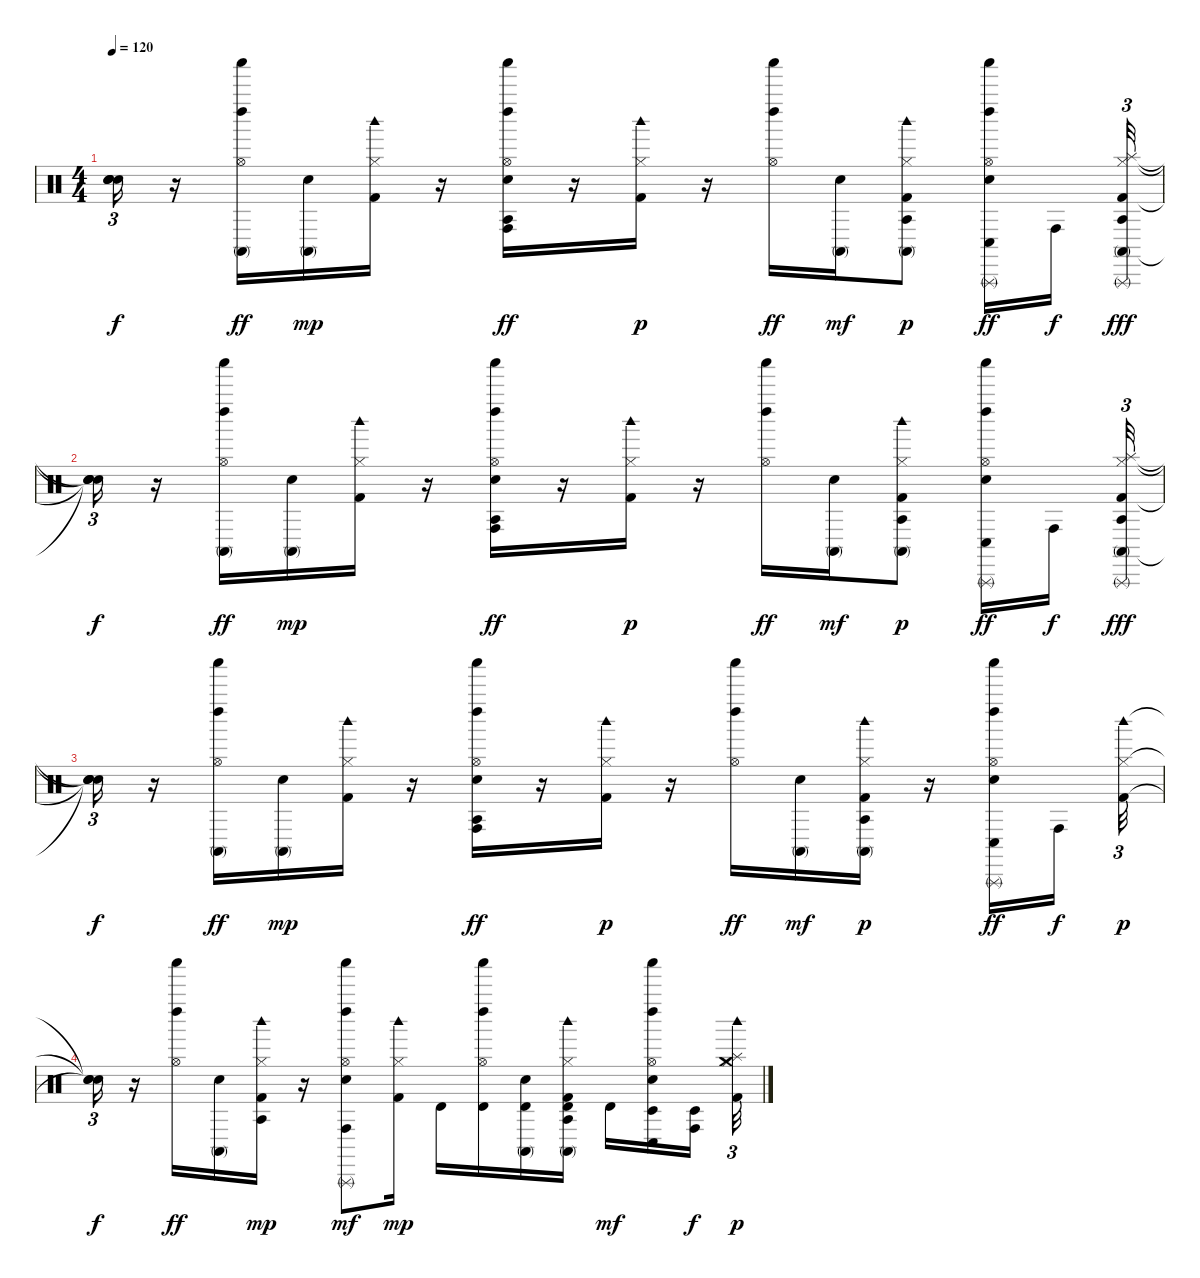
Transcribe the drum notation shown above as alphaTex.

\track "" {instrument percussion}
\staff {score}
\articulation defaults
\ts (4 4)
\tempo 120
\clef neutral
\ks c
("Snare (hit)"{t} "Snare (hit)"{t} "Snare (hit)"{t} "Snare (hit)"{t}).16{tu (3 2) dy f} r.16 ("Shaker (hit)" "Left Maraca (hit)" "Conga high (mute)" "Hi-Hat (open)").16{dy ff} ("Electric Snare (hit)" "Conga high (mute)").16{dy mp} ("Kick (hit) 2" "Hi-Hat (closed)" "Woodblock high (hit)").16 r.16 ("Shaker (hit)" "Left Maraca (hit)" "Electric Snare (hit)" "Conga high (hit)" "Hi-Hat (open)" "Agogo tow (hit)").16{dy ff} r.16 ("Kick (hit) 2" "Hi-Hat (closed)" "Woodblock high (hit)").16{dy p} r.16 ("Shaker (hit)" "Left Maraca (hit)" "Hi-Hat (open)").16{dy ff} ("Electric Snare (hit)" "Conga high (mute)").16{dy mf} ("Kick (hit) 2" "Conga high (mute)" "Hi-Hat (closed)" "Agogo tow (hit)" "Woodblock high (hit)").8{dy p} ("Shaker (hit)" "Left Maraca (hit)" "Electric Snare (hit)" "Conga low (hit)" "Hi-Hat (open)" "Triangle (rnute)").16{dy ff} "Conga high (hit)".16{dy f beam splitsecondary} ("Kick (hit) 2" "Conga high (mute)" "Hi-Hat (closed)" "Splash (hit)" "Triangle (rnute)" "Agogo tow (hit)").32{tu (3 2) dy fff} |
("Snare (hit)"{t} "Snare (hit)"{t} "Snare (hit)"{t} "Snare (hit)"{t}).16{tu (3 2) dy f} r.16 ("Shaker (hit)" "Left Maraca (hit)" "Conga high (mute)" "Hi-Hat (open)").16{dy ff} ("Electric Snare (hit)" "Conga high (mute)").16{dy mp} ("Kick (hit) 2" "Hi-Hat (closed)" "Woodblock high (hit)").16 r.16 ("Shaker (hit)" "Left Maraca (hit)" "Electric Snare (hit)" "Conga high (hit)" "Hi-Hat (open)" "Agogo tow (hit)").16{dy ff} r.16 ("Kick (hit) 2" "Hi-Hat (closed)" "Woodblock high (hit)").16{dy p} r.16 ("Shaker (hit)" "Left Maraca (hit)" "Hi-Hat (open)").16{dy ff} ("Electric Snare (hit)" "Conga high (mute)").16{dy mf} ("Kick (hit) 2" "Conga high (mute)" "Hi-Hat (closed)" "Agogo tow (hit)" "Woodblock high (hit)").8{dy p} ("Shaker (hit)" "Left Maraca (hit)" "Electric Snare (hit)" "Conga low (hit)" "Hi-Hat (open)" "Triangle (rnute)").16{dy ff} "Conga high (hit)".16{dy f beam splitsecondary} ("Kick (hit) 2" "Conga high (mute)" "Hi-Hat (closed)" "Splash (hit)" "Triangle (rnute)" "Agogo tow (hit)").32{tu (3 2) dy fff} |
("Snare (hit)"{t} "Snare (hit)"{t} "Snare (hit)"{t} "Snare (hit)"{t}).16{tu (3 2) dy f} r.16 ("Shaker (hit)" "Left Maraca (hit)" "Conga high (mute)" "Hi-Hat (open)").16{dy ff} ("Electric Snare (hit)" "Conga high (mute)").16{dy mp} ("Kick (hit) 2" "Hi-Hat (closed)" "Woodblock high (hit)").16 r.16 ("Shaker (hit)" "Left Maraca (hit)" "Electric Snare (hit)" "Conga high (hit)" "Hi-Hat (open)" "Agogo tow (hit)").16{dy ff} r.16 ("Kick (hit) 2" "Hi-Hat (closed)" "Woodblock high (hit)").16{dy p} r.16 ("Shaker (hit)" "Left Maraca (hit)" "Hi-Hat (open)").16{dy ff} ("Electric Snare (hit)" "Conga high (mute)").16{dy mf} ("Kick (hit) 2" "Conga high (mute)" "Hi-Hat (closed)" "Agogo tow (hit)" "Woodblock high (hit)").16{dy p} r.16 ("Shaker (hit)" "Left Maraca (hit)" "Electric Snare (hit)" "Conga low (hit)" "Hi-Hat (open)" "Triangle (rnute)").16{dy ff} "Conga high (hit)".16{dy f beam splitsecondary} ("Kick (hit) 2" "Hi-Hat (closed)" "Woodblock high (hit)").32{tu (3 2) dy p} |
("Snare (hit)"{t} "Snare (hit)"{t} "Snare (hit)"{t}).16{tu (3 2) dy f} r.16 ("Shaker (hit)" "Left Maraca (hit)" "Hi-Hat (open)").16{dy ff} ("Electric Snare (hit)" "Conga high (mute)").16 ("Kick (hit) 2" "Hi-Hat (closed)" "Agogo tow (hit)" "Woodblock high (hit)").16{dy mp} r.16 ("Shaker (hit)" "Left Maraca (hit)" "Electric Snare (hit)" "Conga high (hit)" "Hi-Hat (open)" "Triangle (rnute)").8{dy mf} ("Kick (hit) 2" "Hi-Hat (closed)" "Woodblock high (hit)").16{dy mp} "Timbale high (hit)".16 ("Shaker (hit)" "Left Maraca (hit)" "Hi-Hat (open)" "Timbale high (hit)").16 ("Electric Snare (hit)" "Conga high (mute)" "Timbale high (hit)").16 ("Kick (hit) 2" "Conga high (mute)" "Hi-Hat (closed)" "Timbale high (hit)" "Agogo tow (hit)" "Woodblock high (hit)").16 "Timbale high (hit)".16{dy mf} ("Shaker (hit)" "Left Maraca (hit)" "Electric Snare (hit)" "Conga low (hit)" "Hi-Hat (open)" "Timbale low (hit)").16 ("Conga high (hit)" "Timbale low (hit)").16{dy f beam splitsecondary} ("Kick (hit) 2" "Hi-Hat (closed)" "Crash medium (hit)" "Splash (hit)" "Woodblock high (hit)").32{tu (3 2) dy p}
